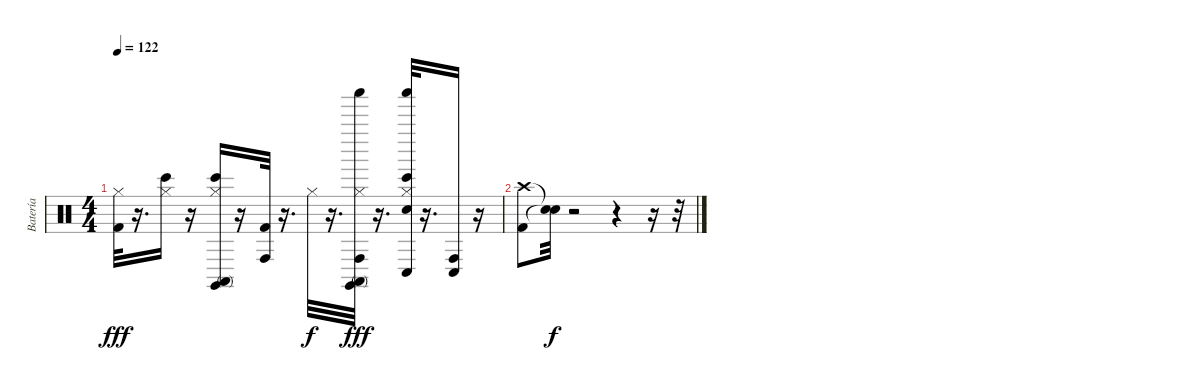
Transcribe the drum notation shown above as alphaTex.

\track ("Batería" "Batería") {instrument percussion}
\staff {score}
\articulation defaults
\ts (4 4)
\tempo 122
\clef neutral
\ks c
("Hi-Hat (closed)" "Kick (hit) 2").32{dy fff volume 4} r.16{d} ("Bongo High (hit)" "Hi-Hat (closed)").16{volume 3} r.16 ("Claves (hit)" "Bongo High (hit)" "Conga high (mute)" "Hi-Hat (closed)").16{volume 3} r.16 ("Conga high (hit)" "Kick (hit) 2").32{volume 3} r.16{d} "Hi-Hat (closed)".32{dy f volume 3} r.16{d} ("Claves (hit)" "Conga high (hit)" "Conga high (mute)" "Shaker (hit)" "Hi-Hat (closed)").32{dy fff volume 2} r.16{d} ("Snare (hit) 2" "Bongo High (hit)" "Conga low (hit)" "Shaker (hit)" "Hi-Hat (closed)").32{volume 2} r.16{d} ("Conga low (hit)" "Conga high (hit)").16{volume 2} r.16 |
("Kick (hit) 2" "Crash high (hit)").8{volume 2} ("Snare (hit)"{t} "Snare (hit)"{t}).32{dy f} r.2 r.4 r.16 r.32
